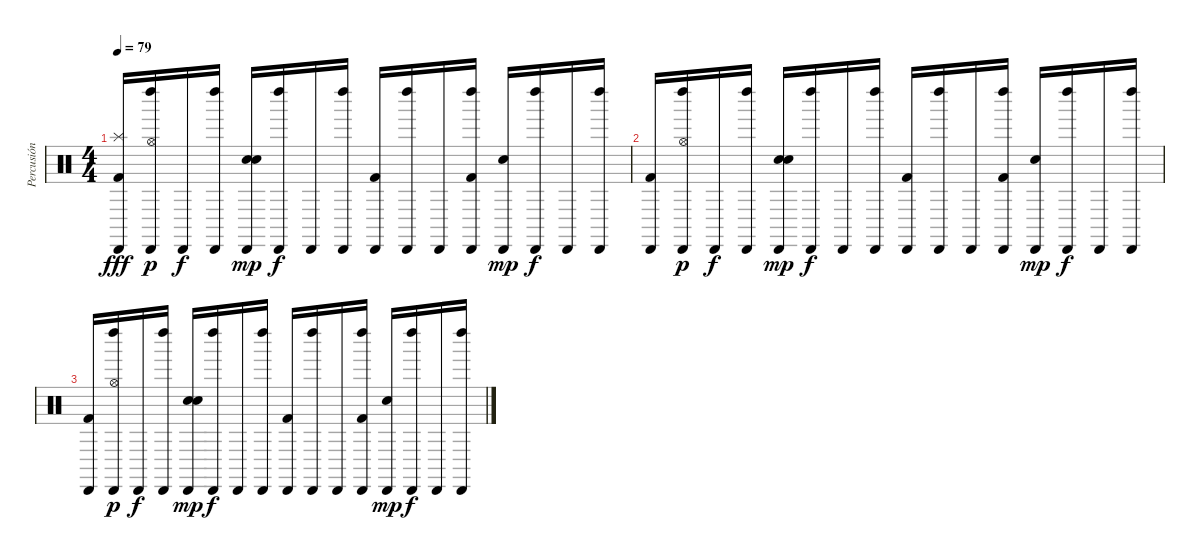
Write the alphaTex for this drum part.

\track ("Percusión" "Percusión") {instrument percussion}
\staff {score}
\articulation defaults
\ts (4 4)
\tempo 79
\clef neutral
\ks c
("Cabasa (hit)" "Splash (hit)" "Kick (hit) 2").16{dy fff volume 0} ("Cabasa (hit)" "Left Maraca (hit)" "Hi-Hat (open)").16{dy p} "Cabasa (hit)".16{dy f} ("Cabasa (hit)" "Left Maraca (hit)").16 ("Cabasa (hit)" "Electric Snare (hit)" "Snare (hit) 2").16{dy mp} ("Cabasa (hit)" "Left Maraca (hit)").16{dy f} "Cabasa (hit)".16 ("Cabasa (hit)" "Left Maraca (hit)").16 ("Cabasa (hit)" "Kick (hit) 2").16 ("Cabasa (hit)" "Left Maraca (hit)").16 "Cabasa (hit)".16 ("Cabasa (hit)" "Left Maraca (hit)" "Kick (hit) 2").16 ("Cabasa (hit)" "Electric Snare (hit)").16{dy mp} ("Cabasa (hit)" "Left Maraca (hit)").16{dy f} "Cabasa (hit)".16 ("Cabasa (hit)" "Left Maraca (hit)").16 |
("Cabasa (hit)" "Kick (hit) 2").16 ("Cabasa (hit)" "Left Maraca (hit)" "Hi-Hat (open)").16{dy p} "Cabasa (hit)".16{dy f} ("Cabasa (hit)" "Left Maraca (hit)").16 ("Cabasa (hit)" "Electric Snare (hit)" "Snare (hit) 2").16{dy mp} ("Cabasa (hit)" "Left Maraca (hit)").16{dy f} "Cabasa (hit)".16 ("Cabasa (hit)" "Left Maraca (hit)").16 ("Cabasa (hit)" "Kick (hit) 2").16 ("Cabasa (hit)" "Left Maraca (hit)").16 "Cabasa (hit)".16 ("Cabasa (hit)" "Left Maraca (hit)" "Kick (hit) 2").16 ("Cabasa (hit)" "Electric Snare (hit)").16{dy mp} ("Cabasa (hit)" "Left Maraca (hit)").16{dy f} "Cabasa (hit)".16 ("Cabasa (hit)" "Left Maraca (hit)").16 |
("Cabasa (hit)" "Kick (hit) 2").16 ("Cabasa (hit)" "Left Maraca (hit)" "Hi-Hat (open)").16{dy p} "Cabasa (hit)".16{dy f} ("Cabasa (hit)" "Left Maraca (hit)").16 ("Cabasa (hit)" "Electric Snare (hit)" "Snare (hit) 2").16{dy mp} ("Cabasa (hit)" "Left Maraca (hit)").16{dy f} "Cabasa (hit)".16 ("Cabasa (hit)" "Left Maraca (hit)").16 ("Cabasa (hit)" "Kick (hit) 2").16 ("Cabasa (hit)" "Left Maraca (hit)").16 "Cabasa (hit)".16 ("Cabasa (hit)" "Left Maraca (hit)" "Kick (hit) 2").16 ("Cabasa (hit)" "Electric Snare (hit)").16{dy mp} ("Cabasa (hit)" "Left Maraca (hit)").16{dy f} "Cabasa (hit)".16 ("Cabasa (hit)" "Left Maraca (hit)").16
